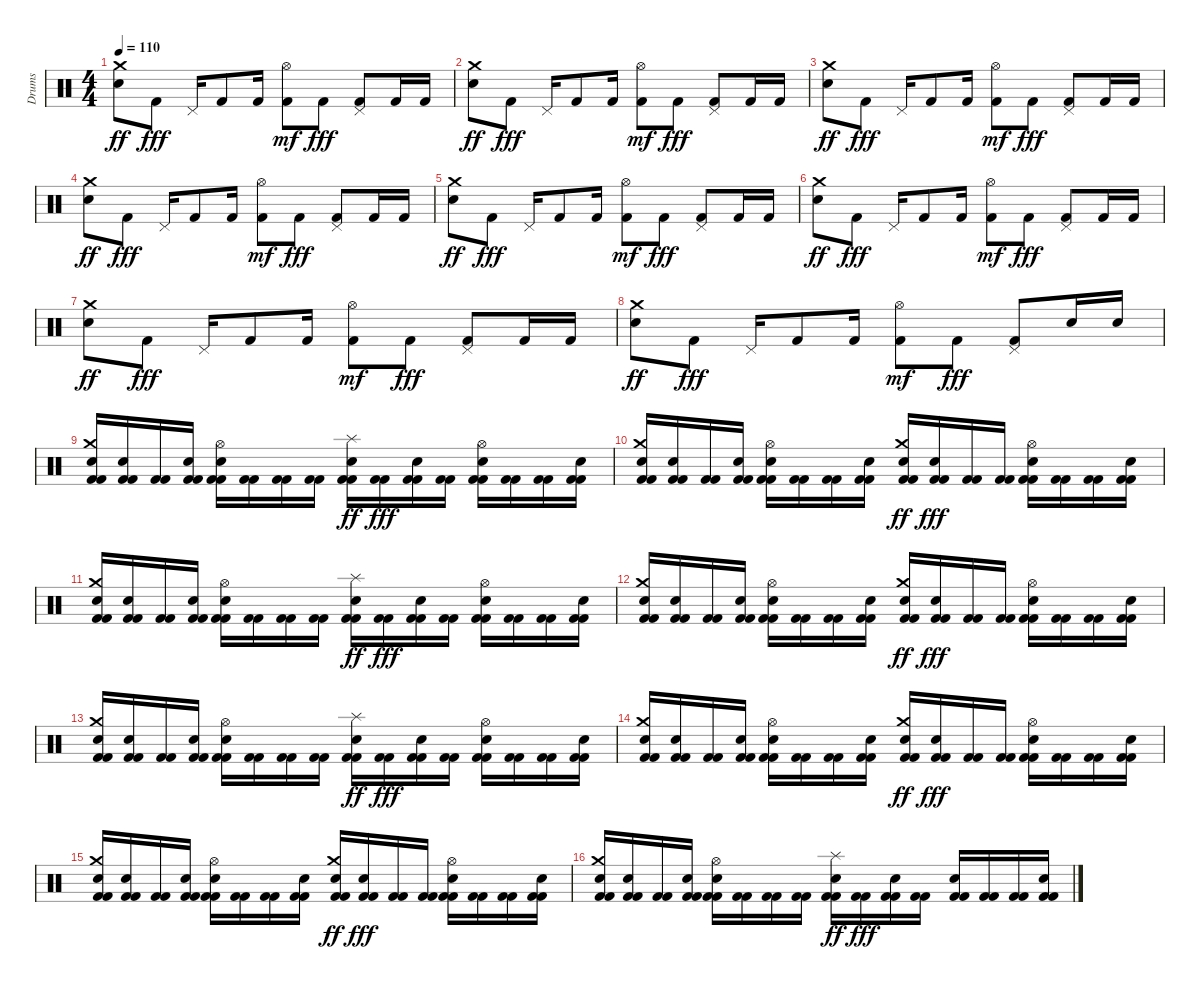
\track ("Drums" "Drums") {instrument percussion}
\staff {score}
\articulation defaults
\ts (4 4)
\tempo 110
\clef neutral
\ks c
("Electric Snare (hit)" "Crash medium (hit)").8{dy ff} "Kick (hit) 2".8{dy fff} "Pedal Hi-Hat (hit)".16 "Kick (hit) 2".8 "Kick (hit) 2".16 ("Kick (hit) 2" "Hi-Hat (open)").8{dy mf} "Kick (hit) 2".8{dy fff} ("Kick (hit) 2" "Pedal Hi-Hat (hit)").8 "Kick (hit) 2".16 "Kick (hit) 2".16 |
("Electric Snare (hit)" "Crash medium (hit)").8{dy ff} "Kick (hit) 2".8{dy fff} "Pedal Hi-Hat (hit)".16 "Kick (hit) 2".8 "Kick (hit) 2".16 ("Kick (hit) 2" "Hi-Hat (open)").8{dy mf} "Kick (hit) 2".8{dy fff} ("Kick (hit) 2" "Pedal Hi-Hat (hit)").8 "Kick (hit) 2".16 "Kick (hit) 2".16 |
("Electric Snare (hit)" "Crash medium (hit)").8{dy ff} "Kick (hit) 2".8{dy fff} "Pedal Hi-Hat (hit)".16 "Kick (hit) 2".8 "Kick (hit) 2".16 ("Kick (hit) 2" "Hi-Hat (open)").8{dy mf} "Kick (hit) 2".8{dy fff} ("Kick (hit) 2" "Pedal Hi-Hat (hit)").8 "Kick (hit) 2".16 "Kick (hit) 2".16 |
("Electric Snare (hit)" "Crash medium (hit)").8{dy ff} "Kick (hit) 2".8{dy fff} "Pedal Hi-Hat (hit)".16 "Kick (hit) 2".8 "Kick (hit) 2".16 ("Kick (hit) 2" "Hi-Hat (open)").8{dy mf} "Kick (hit) 2".8{dy fff} ("Kick (hit) 2" "Pedal Hi-Hat (hit)").8 "Kick (hit) 2".16 "Kick (hit) 2".16 |
("Electric Snare (hit)" "Crash medium (hit)").8{dy ff} "Kick (hit) 2".8{dy fff} "Pedal Hi-Hat (hit)".16 "Kick (hit) 2".8 "Kick (hit) 2".16 ("Kick (hit) 2" "Hi-Hat (open)").8{dy mf} "Kick (hit) 2".8{dy fff} ("Kick (hit) 2" "Pedal Hi-Hat (hit)").8 "Kick (hit) 2".16 "Kick (hit) 2".16 |
("Electric Snare (hit)" "Crash medium (hit)").8{dy ff} "Kick (hit) 2".8{dy fff} "Pedal Hi-Hat (hit)".16 "Kick (hit) 2".8 "Kick (hit) 2".16 ("Kick (hit) 2" "Hi-Hat (open)").8{dy mf} "Kick (hit) 2".8{dy fff} ("Kick (hit) 2" "Pedal Hi-Hat (hit)").8 "Kick (hit) 2".16 "Kick (hit) 2".16 |
("Electric Snare (hit)" "Crash medium (hit)").8{dy ff} "Kick (hit) 2".8{dy fff} "Pedal Hi-Hat (hit)".16 "Kick (hit) 2".8 "Kick (hit) 2".16 ("Kick (hit) 2" "Hi-Hat (open)").8{dy mf} "Kick (hit) 2".8{dy fff} ("Kick (hit) 2" "Pedal Hi-Hat (hit)").8 "Kick (hit) 2".16 "Kick (hit) 2".16 |
("Electric Snare (hit)" "Crash medium (hit)").8{dy ff} "Kick (hit) 2".8{dy fff} "Pedal Hi-Hat (hit)".16 "Kick (hit) 2".8 "Kick (hit) 2".16 ("Kick (hit) 2" "Hi-Hat (open)").8{dy mf} "Kick (hit) 2".8{dy fff} ("Kick (hit) 2" "Pedal Hi-Hat (hit)").8 "Electric Snare (hit)".16 "Electric Snare (hit)".16 |
("Kick (hit) 2" "Kick (hit) 2" "Electric Snare (hit)" "Crash medium (hit)").16 ("Kick (hit) 2" "Kick (hit) 2" "Electric Snare (hit)").16 ("Kick (hit) 2" "Kick (hit) 2").16 ("Kick (hit) 2" "Kick (hit) 2" "Electric Snare (hit)").16 ("Kick (hit) 2" "Kick (hit) 2" "Electric Snare (hit)" "Hi-Hat (open)").16 ("Kick (hit) 2" "Kick (hit) 2").16 ("Kick (hit) 2" "Kick (hit) 2").16 ("Kick (hit) 2" "Kick (hit) 2").16 ("Kick (hit) 2" "Kick (hit) 2" "Electric Snare (hit)" "Splash (hit)").16{dy ff} ("Kick (hit) 2" "Kick (hit) 2").16{dy fff} ("Kick (hit) 2" "Kick (hit) 2" "Electric Snare (hit)").16 ("Kick (hit) 2" "Kick (hit) 2").16 ("Kick (hit) 2" "Kick (hit) 2" "Electric Snare (hit)" "Hi-Hat (open)").16 ("Kick (hit) 2" "Kick (hit) 2").16 ("Kick (hit) 2" "Kick (hit) 2").16 ("Kick (hit) 2" "Kick (hit) 2" "Electric Snare (hit)").16 |
("Kick (hit) 2" "Kick (hit) 2" "Electric Snare (hit)" "Crash medium (hit)").16 ("Kick (hit) 2" "Kick (hit) 2" "Electric Snare (hit)").16 ("Kick (hit) 2" "Kick (hit) 2").16 ("Kick (hit) 2" "Kick (hit) 2" "Electric Snare (hit)").16 ("Kick (hit) 2" "Kick (hit) 2" "Electric Snare (hit)" "Hi-Hat (open)").16 ("Kick (hit) 2" "Kick (hit) 2").16 ("Kick (hit) 2" "Kick (hit) 2").16 ("Kick (hit) 2" "Kick (hit) 2" "Electric Snare (hit)").16 ("Kick (hit) 2" "Kick (hit) 2" "Electric Snare (hit)" "Crash medium (hit)").16{dy ff} ("Kick (hit) 2" "Kick (hit) 2" "Electric Snare (hit)").16{dy fff} ("Kick (hit) 2" "Kick (hit) 2").16 ("Kick (hit) 2" "Kick (hit) 2").16 ("Kick (hit) 2" "Kick (hit) 2" "Electric Snare (hit)" "Hi-Hat (open)").16 ("Kick (hit) 2" "Kick (hit) 2").16 ("Kick (hit) 2" "Kick (hit) 2").16 ("Kick (hit) 2" "Kick (hit) 2" "Electric Snare (hit)").16 |
("Kick (hit) 2" "Kick (hit) 2" "Electric Snare (hit)" "Crash medium (hit)").16 ("Kick (hit) 2" "Kick (hit) 2" "Electric Snare (hit)").16 ("Kick (hit) 2" "Kick (hit) 2").16 ("Kick (hit) 2" "Kick (hit) 2" "Electric Snare (hit)").16 ("Kick (hit) 2" "Kick (hit) 2" "Electric Snare (hit)" "Hi-Hat (open)").16 ("Kick (hit) 2" "Kick (hit) 2").16 ("Kick (hit) 2" "Kick (hit) 2").16 ("Kick (hit) 2" "Kick (hit) 2").16 ("Kick (hit) 2" "Kick (hit) 2" "Electric Snare (hit)" "Splash (hit)").16{dy ff} ("Kick (hit) 2" "Kick (hit) 2").16{dy fff} ("Kick (hit) 2" "Kick (hit) 2" "Electric Snare (hit)").16 ("Kick (hit) 2" "Kick (hit) 2").16 ("Kick (hit) 2" "Kick (hit) 2" "Electric Snare (hit)" "Hi-Hat (open)").16 ("Kick (hit) 2" "Kick (hit) 2").16 ("Kick (hit) 2" "Kick (hit) 2").16 ("Kick (hit) 2" "Kick (hit) 2" "Electric Snare (hit)").16 |
("Kick (hit) 2" "Kick (hit) 2" "Electric Snare (hit)" "Crash medium (hit)").16 ("Kick (hit) 2" "Kick (hit) 2" "Electric Snare (hit)").16 ("Kick (hit) 2" "Kick (hit) 2").16 ("Kick (hit) 2" "Kick (hit) 2" "Electric Snare (hit)").16 ("Kick (hit) 2" "Kick (hit) 2" "Electric Snare (hit)" "Hi-Hat (open)").16 ("Kick (hit) 2" "Kick (hit) 2").16 ("Kick (hit) 2" "Kick (hit) 2").16 ("Kick (hit) 2" "Kick (hit) 2" "Electric Snare (hit)").16 ("Kick (hit) 2" "Kick (hit) 2" "Electric Snare (hit)" "Crash medium (hit)").16{dy ff} ("Kick (hit) 2" "Kick (hit) 2" "Electric Snare (hit)").16{dy fff} ("Kick (hit) 2" "Kick (hit) 2").16 ("Kick (hit) 2" "Kick (hit) 2").16 ("Kick (hit) 2" "Kick (hit) 2" "Electric Snare (hit)" "Hi-Hat (open)").16 ("Kick (hit) 2" "Kick (hit) 2").16 ("Kick (hit) 2" "Kick (hit) 2").16 ("Kick (hit) 2" "Kick (hit) 2" "Electric Snare (hit)").16 |
("Kick (hit) 2" "Kick (hit) 2" "Electric Snare (hit)" "Crash medium (hit)").16 ("Kick (hit) 2" "Kick (hit) 2" "Electric Snare (hit)").16 ("Kick (hit) 2" "Kick (hit) 2").16 ("Kick (hit) 2" "Kick (hit) 2" "Electric Snare (hit)").16 ("Kick (hit) 2" "Kick (hit) 2" "Electric Snare (hit)" "Hi-Hat (open)").16 ("Kick (hit) 2" "Kick (hit) 2").16 ("Kick (hit) 2" "Kick (hit) 2").16 ("Kick (hit) 2" "Kick (hit) 2").16 ("Kick (hit) 2" "Kick (hit) 2" "Electric Snare (hit)" "Splash (hit)").16{dy ff} ("Kick (hit) 2" "Kick (hit) 2").16{dy fff} ("Kick (hit) 2" "Kick (hit) 2" "Electric Snare (hit)").16 ("Kick (hit) 2" "Kick (hit) 2").16 ("Kick (hit) 2" "Kick (hit) 2" "Electric Snare (hit)" "Hi-Hat (open)").16 ("Kick (hit) 2" "Kick (hit) 2").16 ("Kick (hit) 2" "Kick (hit) 2").16 ("Kick (hit) 2" "Kick (hit) 2" "Electric Snare (hit)").16 |
("Kick (hit) 2" "Kick (hit) 2" "Electric Snare (hit)" "Crash medium (hit)").16 ("Kick (hit) 2" "Kick (hit) 2" "Electric Snare (hit)").16 ("Kick (hit) 2" "Kick (hit) 2").16 ("Kick (hit) 2" "Kick (hit) 2" "Electric Snare (hit)").16 ("Kick (hit) 2" "Kick (hit) 2" "Electric Snare (hit)" "Hi-Hat (open)").16 ("Kick (hit) 2" "Kick (hit) 2").16 ("Kick (hit) 2" "Kick (hit) 2").16 ("Kick (hit) 2" "Kick (hit) 2" "Electric Snare (hit)").16 ("Kick (hit) 2" "Kick (hit) 2" "Electric Snare (hit)" "Crash medium (hit)").16{dy ff} ("Kick (hit) 2" "Kick (hit) 2" "Electric Snare (hit)").16{dy fff} ("Kick (hit) 2" "Kick (hit) 2").16 ("Kick (hit) 2" "Kick (hit) 2").16 ("Kick (hit) 2" "Kick (hit) 2" "Electric Snare (hit)" "Hi-Hat (open)").16 ("Kick (hit) 2" "Kick (hit) 2").16 ("Kick (hit) 2" "Kick (hit) 2").16 ("Kick (hit) 2" "Kick (hit) 2" "Electric Snare (hit)").16 |
("Kick (hit) 2" "Kick (hit) 2" "Electric Snare (hit)" "Crash medium (hit)").16 ("Kick (hit) 2" "Kick (hit) 2" "Electric Snare (hit)").16 ("Kick (hit) 2" "Kick (hit) 2").16 ("Kick (hit) 2" "Kick (hit) 2" "Electric Snare (hit)").16 ("Kick (hit) 2" "Kick (hit) 2" "Electric Snare (hit)" "Hi-Hat (open)").16 ("Kick (hit) 2" "Kick (hit) 2").16 ("Kick (hit) 2" "Kick (hit) 2").16 ("Kick (hit) 2" "Kick (hit) 2" "Electric Snare (hit)").16 ("Kick (hit) 2" "Kick (hit) 2" "Electric Snare (hit)" "Crash medium (hit)").16{dy ff} ("Kick (hit) 2" "Kick (hit) 2" "Electric Snare (hit)").16{dy fff} ("Kick (hit) 2" "Kick (hit) 2").16 ("Kick (hit) 2" "Kick (hit) 2").16 ("Kick (hit) 2" "Kick (hit) 2" "Electric Snare (hit)" "Hi-Hat (open)").16 ("Kick (hit) 2" "Kick (hit) 2").16 ("Kick (hit) 2" "Kick (hit) 2").16 ("Kick (hit) 2" "Kick (hit) 2" "Electric Snare (hit)").16 |
("Kick (hit) 2" "Kick (hit) 2" "Electric Snare (hit)" "Crash medium (hit)").16 ("Kick (hit) 2" "Kick (hit) 2" "Electric Snare (hit)").16 ("Kick (hit) 2" "Kick (hit) 2").16 ("Kick (hit) 2" "Kick (hit) 2" "Electric Snare (hit)").16 ("Kick (hit) 2" "Kick (hit) 2" "Electric Snare (hit)" "Hi-Hat (open)").16 ("Kick (hit) 2" "Kick (hit) 2").16 ("Kick (hit) 2" "Kick (hit) 2").16 ("Kick (hit) 2" "Kick (hit) 2").16 ("Kick (hit) 2" "Kick (hit) 2" "Electric Snare (hit)" "Splash (hit)").16{dy ff} ("Kick (hit) 2" "Kick (hit) 2").16{dy fff} ("Kick (hit) 2" "Kick (hit) 2" "Electric Snare (hit)").16 ("Kick (hit) 2" "Kick (hit) 2").16 ("Kick (hit) 2" "Kick (hit) 2" "Electric Snare (hit)").16 ("Kick (hit) 2" "Kick (hit) 2").16 ("Kick (hit) 2" "Kick (hit) 2").16 ("Kick (hit) 2" "Kick (hit) 2" "Electric Snare (hit)").16
